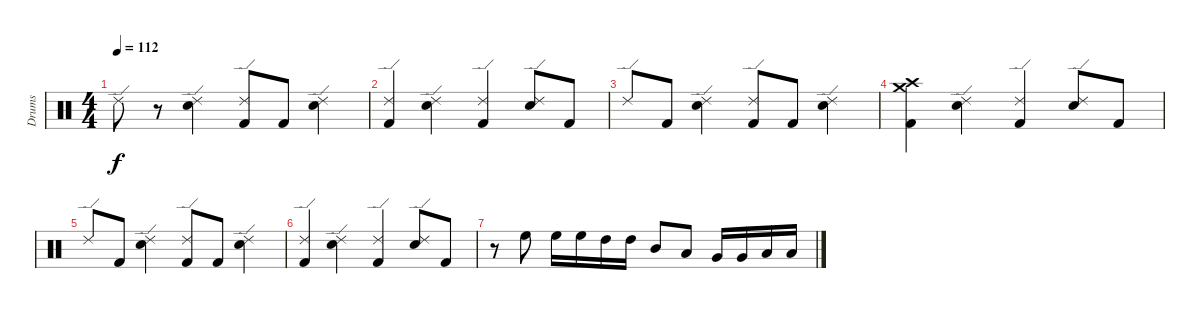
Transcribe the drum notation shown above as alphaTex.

\track ("Drums" "Drums") {instrument percussion}
\staff {score}
\articulation defaults
\ts (4 4)
\tempo 112
\clef neutral
\ks c "Ride (edge) 2".8{dy f}
r.8 ("Ride (edge) 2" "Electric Snare (hit)").4 ("Ride (edge) 2" "Kick (hit) 2").8 "Kick (hit) 2".8 ("Ride (edge) 2" "Electric Snare (hit)").4 |
("Ride (edge) 2" "Kick (hit) 2").4 ("Ride (edge) 2" "Electric Snare (hit)").4 ("Ride (edge) 2" "Kick (hit) 2").4 ("Ride (edge) 2" "Electric Snare (hit)").8 "Kick (hit) 2".8 |
"Ride (edge) 2".8 "Kick (hit) 2".8 ("Ride (edge) 2" "Electric Snare (hit)").4 ("Ride (edge) 2" "Kick (hit) 2").8 "Kick (hit) 2".8 ("Ride (edge) 2" "Electric Snare (hit)").4 |
("Crash medium (hit)" "Crash high (hit)" "Kick (hit) 2").4 ("Ride (edge) 2" "Electric Snare (hit)").4 ("Ride (edge) 2" "Kick (hit) 2").4 ("Ride (edge) 2" "Electric Snare (hit)").8 "Kick (hit) 2".8 |
"Ride (edge) 2".8 "Kick (hit) 2".8 ("Ride (edge) 2" "Electric Snare (hit)").4 ("Ride (edge) 2" "Kick (hit) 2").8 "Kick (hit) 2".8 ("Ride (edge) 2" "Electric Snare (hit)").4 |
("Ride (edge) 2" "Kick (hit) 2").4 ("Ride (edge) 2" "Electric Snare (hit)").4 ("Ride (edge) 2" "Kick (hit) 2").4 ("Ride (edge) 2" "Electric Snare (hit)").8 "Kick (hit) 2".8 |
r.8 "High Floor Tom (hit)".8 "High Floor Tom (hit)".16 "High Floor Tom (hit)".16 "High Tom (hit)".16 "High Tom (hit)".16 "Mid Tom (hit)".8 "Low Tom (hit)".8 "Very Low Tom (hit)".16 "Very Low Tom (hit)".16 "Low Floor Tom (hit)".16 "Low Floor Tom (hit)".16
